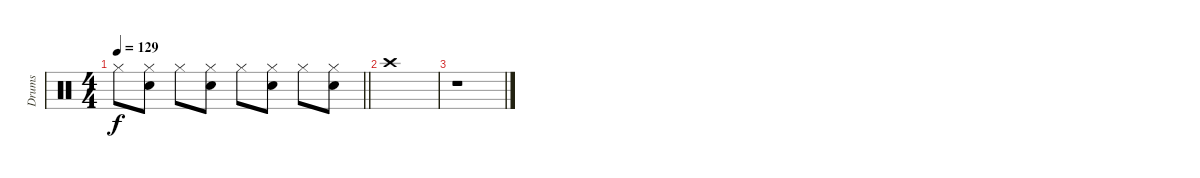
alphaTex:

\track ("Drums" "Drums") {instrument percussion}
\staff {score}
\articulation defaults
\ts (4 4)
\tempo 129
\clef neutral
\barLineRight lightlight
\ks c "Hi-Hat (closed)".8{dy f}
("Hi-Hat (closed)" "Electric Snare (hit)").8 "Hi-Hat (closed)".8 ("Hi-Hat (closed)" "Electric Snare (hit)").8 "Hi-Hat (closed)".8 ("Hi-Hat (closed)" "Electric Snare (hit)").8 "Hi-Hat (closed)".8 ("Hi-Hat (closed)" "Electric Snare (hit)").8 |
"Crash high (hit)".1 |
r.1
